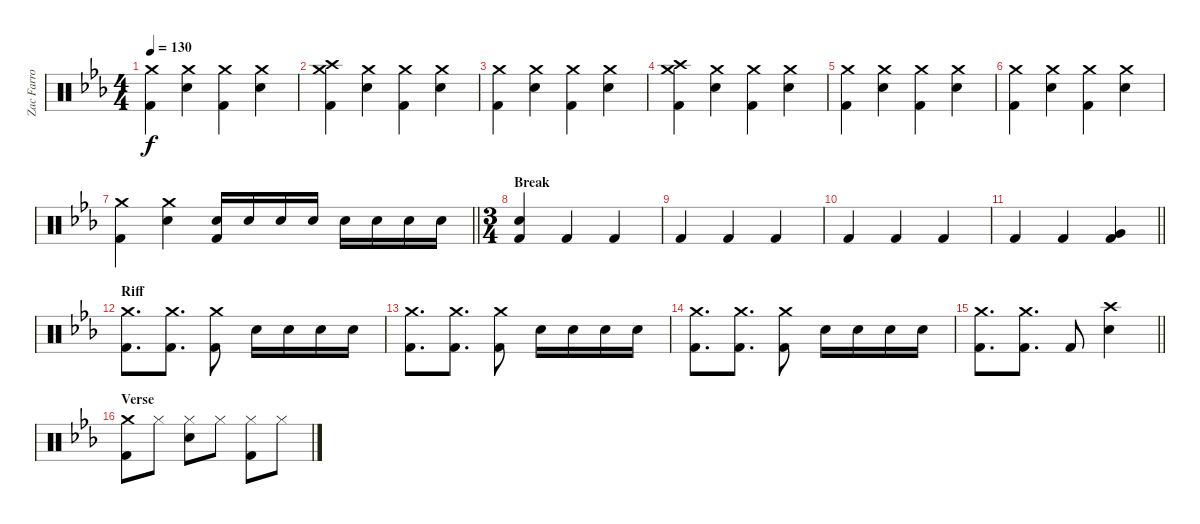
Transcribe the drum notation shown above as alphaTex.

\track ("Zac Farro (Drums)" "Zac Farro ") {instrument percussion}
\staff {score}
\articulation defaults
\ts (4 4)
\tempo 130
\clef neutral
\ks eb
("Crash medium (hit)" "Kick (hit) 2").4{dy f} ("Crash medium (hit)" "Electric Snare (hit)").4 ("Crash medium (hit)" "Kick (hit) 2").4 ("Crash medium (hit)" "Electric Snare (hit)").4 |
("Crash medium (hit)" "Kick (hit) 2" "Crash high (hit)").4 ("Crash medium (hit)" "Electric Snare (hit)").4 ("Crash medium (hit)" "Kick (hit) 2").4 ("Crash medium (hit)" "Electric Snare (hit)").4 |
("Crash medium (hit)" "Kick (hit) 2").4 ("Crash medium (hit)" "Electric Snare (hit)").4 ("Crash medium (hit)" "Kick (hit) 2").4 ("Crash medium (hit)" "Electric Snare (hit)").4 |
("Crash medium (hit)" "Kick (hit) 2" "Crash high (hit)").4 ("Crash medium (hit)" "Electric Snare (hit)").4 ("Crash medium (hit)" "Kick (hit) 2").4 ("Crash medium (hit)" "Electric Snare (hit)").4 |
("Crash medium (hit)" "Kick (hit) 2").4 ("Crash medium (hit)" "Electric Snare (hit)").4 ("Crash medium (hit)" "Kick (hit) 2").4 ("Crash medium (hit)" "Electric Snare (hit)").4 |
("Crash medium (hit)" "Kick (hit) 2").4 ("Crash medium (hit)" "Electric Snare (hit)").4 ("Crash medium (hit)" "Kick (hit) 2").4 ("Crash medium (hit)" "Electric Snare (hit)").4 |
\barLineRight lightlight
("Crash medium (hit)" "Kick (hit) 2").4 ("Crash medium (hit)" "Electric Snare (hit)").4 ("Electric Snare (hit)" "Kick (hit) 2").16 "Electric Snare (hit)".16 "Electric Snare (hit)".16 "Electric Snare (hit)".16 "Electric Snare (hit)".16 "Electric Snare (hit)".16 "Electric Snare (hit)".16 "Electric Snare (hit)".16 |
\ts (3 4)
\section ("" "Break")
("Electric Snare (hit)" "Kick (hit) 2").4 "Kick (hit) 2".4 "Kick (hit) 2".4 |
"Kick (hit) 2".4 "Kick (hit) 2".4 "Kick (hit) 2".4 |
"Kick (hit) 2".4 "Kick (hit) 2".4 "Kick (hit) 2".4 |
\barLineRight lightlight "Kick (hit) 2".4 "Kick (hit) 2".4
("Kick (hit) 2" "Very Low Tom (hit)").4 |
\section ("" "Riff")
("Crash medium (hit)" "Kick (hit) 2").8{d} ("Crash medium (hit)" "Kick (hit) 2").8{d} ("Crash medium (hit)" "Kick (hit) 2").8 "Electric Snare (hit)".16 "Electric Snare (hit)".16 "Electric Snare (hit)".16 "Electric Snare (hit)".16 |
("Crash medium (hit)" "Kick (hit) 2").8{d} ("Crash medium (hit)" "Kick (hit) 2").8{d} ("Crash medium (hit)" "Kick (hit) 2").8 "Electric Snare (hit)".16 "Electric Snare (hit)".16 "Electric Snare (hit)".16 "Electric Snare (hit)".16 |
("Crash medium (hit)" "Kick (hit) 2").8{d} ("Crash medium (hit)" "Kick (hit) 2").8{d} ("Crash medium (hit)" "Kick (hit) 2").8 "Electric Snare (hit)".16 "Electric Snare (hit)".16 "Electric Snare (hit)".16 "Electric Snare (hit)".16 |
\barLineRight lightlight
("Crash medium (hit)" "Kick (hit) 2").8{d} ("Crash medium (hit)" "Kick (hit) 2").8{d} "Kick (hit) 2".8 ("Crash high (hit)" "Electric Snare (hit)").4 |
\section ("" "Verse")
("Crash medium (hit)" "Kick (hit) 2").8 "Hi-Hat (closed)".8 ("Hi-Hat (closed)" "Electric Snare (hit)").8 "Hi-Hat (closed)".8 ("Hi-Hat (closed)" "Kick (hit) 2").8 "Hi-Hat (closed)".8
